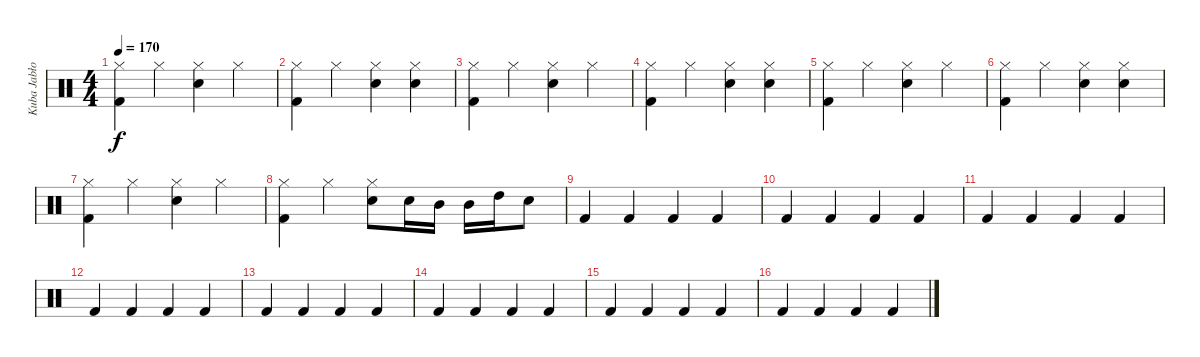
\track ("Kuba Jabłoński" "Kuba Jabło") {instrument percussion}
\staff {score}
\articulation defaults
\ts (4 4)
\tempo 170
\clef neutral
\ks c
("Kick (hit) 2" "Hi-Hat (closed)").4{dy f} "Hi-Hat (closed)".4 ("Snare (hit) 2" "Hi-Hat (closed)").4 "Hi-Hat (closed)".4 |
("Kick (hit) 2" "Hi-Hat (closed)").4 "Hi-Hat (closed)".4 ("Snare (hit) 2" "Hi-Hat (closed)").4 ("Snare (hit) 2" "Hi-Hat (closed)").4 |
("Kick (hit) 2" "Hi-Hat (closed)").4 "Hi-Hat (closed)".4 ("Snare (hit) 2" "Hi-Hat (closed)").4 "Hi-Hat (closed)".4 |
("Kick (hit) 2" "Hi-Hat (closed)").4 "Hi-Hat (closed)".4 ("Snare (hit) 2" "Hi-Hat (closed)").4 ("Snare (hit) 2" "Hi-Hat (closed)").4 |
("Kick (hit) 2" "Hi-Hat (closed)").4 "Hi-Hat (closed)".4 ("Snare (hit) 2" "Hi-Hat (closed)").4 "Hi-Hat (closed)".4 |
("Kick (hit) 2" "Hi-Hat (closed)").4 "Hi-Hat (closed)".4 ("Snare (hit) 2" "Hi-Hat (closed)").4 ("Snare (hit) 2" "Hi-Hat (closed)").4 |
("Kick (hit) 2" "Hi-Hat (closed)").4 "Hi-Hat (closed)".4 ("Snare (hit) 2" "Hi-Hat (closed)").4 "Hi-Hat (closed)".4 |
("Kick (hit) 2" "Hi-Hat (closed)").4 "Hi-Hat (closed)".4 ("Snare (hit) 2" "Hi-Hat (closed)").8 "Snare (hit) 2".16 "Mid Tom (hit)".16 "Mid Tom (hit)".16 "High Tom (hit)".16 "Snare (hit) 2".8 |
"Kick (hit) 2".4 "Kick (hit) 2".4 "Kick (hit) 2".4 "Kick (hit) 2".4 |
"Kick (hit) 2".4 "Kick (hit) 2".4 "Kick (hit) 2".4 "Kick (hit) 2".4 |
"Kick (hit) 2".4 "Kick (hit) 2".4 "Kick (hit) 2".4 "Kick (hit) 2".4 |
"Kick (hit) 2".4 "Kick (hit) 2".4 "Kick (hit) 2".4 "Kick (hit) 2".4 |
"Kick (hit) 2".4 "Kick (hit) 2".4 "Kick (hit) 2".4 "Kick (hit) 2".4 |
"Kick (hit) 2".4 "Kick (hit) 2".4 "Kick (hit) 2".4 "Kick (hit) 2".4 |
"Kick (hit) 2".4 "Kick (hit) 2".4 "Kick (hit) 2".4 "Kick (hit) 2".4 |
"Kick (hit) 2".4 "Kick (hit) 2".4 "Kick (hit) 2".4 "Kick (hit) 2".4
